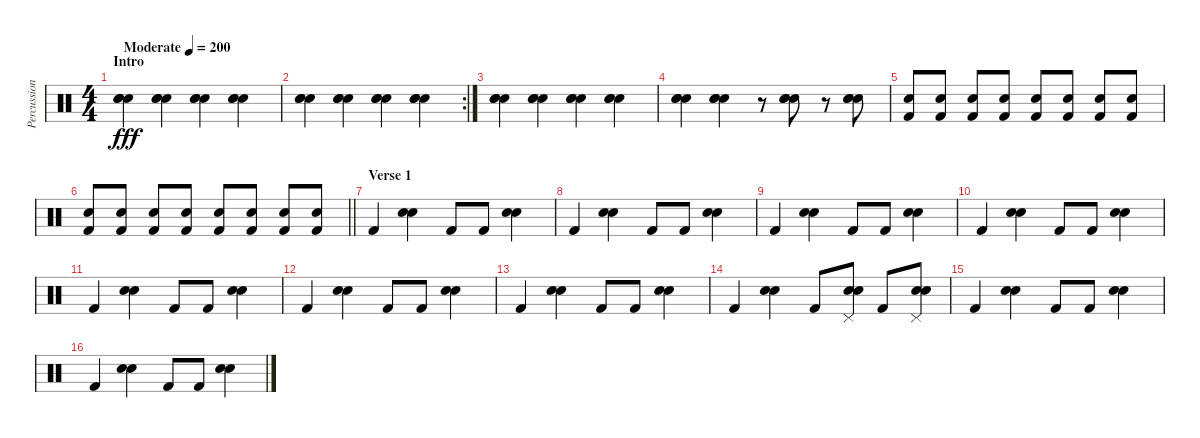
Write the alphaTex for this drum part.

\track ("Percussions" "Percussion") {instrument percussion}
\staff {score}
\articulation defaults
\ts (4 4)
\section ("" "Intro")
\tempo (200 "Moderate")
\clef neutral
\ks c
("Electric Snare (hit)" "Electric Snare (hit)" "Electric Snare (hit)").4{dy fff} ("Electric Snare (hit)" "Electric Snare (hit)" "Electric Snare (hit)").4 ("Electric Snare (hit)" "Electric Snare (hit)" "Electric Snare (hit)").4 ("Electric Snare (hit)" "Electric Snare (hit)" "Electric Snare (hit)").4 |
\rc 2
("Electric Snare (hit)" "Electric Snare (hit)" "Electric Snare (hit)").4 ("Electric Snare (hit)" "Electric Snare (hit)" "Electric Snare (hit)").4 ("Electric Snare (hit)" "Electric Snare (hit)" "Electric Snare (hit)").4 ("Electric Snare (hit)" "Electric Snare (hit)" "Electric Snare (hit)").4 |
("Electric Snare (hit)" "Electric Snare (hit)" "Electric Snare (hit)").4 ("Electric Snare (hit)" "Electric Snare (hit)" "Electric Snare (hit)").4 ("Electric Snare (hit)" "Electric Snare (hit)" "Electric Snare (hit)").4 ("Electric Snare (hit)" "Electric Snare (hit)" "Electric Snare (hit)").4 |
("Electric Snare (hit)" "Electric Snare (hit)" "Electric Snare (hit)").4 ("Electric Snare (hit)" "Electric Snare (hit)" "Electric Snare (hit)").4 r.8 ("Electric Snare (hit)" "Electric Snare (hit)" "Electric Snare (hit)").8 r.8 ("Electric Snare (hit)" "Electric Snare (hit)" "Electric Snare (hit)").8 |
("Electric Snare (hit)" "Kick (hit) 2").8 ("Electric Snare (hit)" "Kick (hit) 2").8 ("Electric Snare (hit)" "Kick (hit) 2").8 ("Electric Snare (hit)" "Kick (hit) 2").8 ("Electric Snare (hit)" "Kick (hit) 2").8 ("Electric Snare (hit)" "Kick (hit) 2").8 ("Electric Snare (hit)" "Kick (hit) 2").8 ("Electric Snare (hit)" "Kick (hit) 2").8 |
\barLineRight lightlight
("Electric Snare (hit)" "Kick (hit) 2").8 ("Electric Snare (hit)" "Kick (hit) 2").8 ("Electric Snare (hit)" "Kick (hit) 2").8 ("Electric Snare (hit)" "Kick (hit) 2").8 ("Electric Snare (hit)" "Kick (hit) 2").8 ("Electric Snare (hit)" "Kick (hit) 2").8 ("Electric Snare (hit)" "Kick (hit) 2").8 ("Electric Snare (hit)" "Kick (hit) 2").8 |
\section ("" "Verse 1")
"Kick (hit) 2".4 ("Electric Snare (hit)" "Electric Snare (hit)").4 "Kick (hit) 2".8 "Kick (hit) 2".8 ("Electric Snare (hit)" "Electric Snare (hit)").4 |
"Kick (hit) 2".4 ("Electric Snare (hit)" "Electric Snare (hit)").4 "Kick (hit) 2".8 "Kick (hit) 2".8 ("Electric Snare (hit)" "Electric Snare (hit)").4 |
"Kick (hit) 2".4 ("Electric Snare (hit)" "Electric Snare (hit)").4 "Kick (hit) 2".8 "Kick (hit) 2".8 ("Electric Snare (hit)" "Electric Snare (hit)").4 |
"Kick (hit) 2".4 ("Electric Snare (hit)" "Electric Snare (hit)").4 "Kick (hit) 2".8 "Kick (hit) 2".8 ("Electric Snare (hit)" "Electric Snare (hit)").4 |
"Kick (hit) 2".4 ("Electric Snare (hit)" "Electric Snare (hit)").4 "Kick (hit) 2".8 "Kick (hit) 2".8 ("Electric Snare (hit)" "Electric Snare (hit)").4 |
"Kick (hit) 2".4 ("Electric Snare (hit)" "Electric Snare (hit)").4 "Kick (hit) 2".8 "Kick (hit) 2".8 ("Electric Snare (hit)" "Electric Snare (hit)").4 |
"Kick (hit) 2".4 ("Electric Snare (hit)" "Electric Snare (hit)").4 "Kick (hit) 2".8 "Kick (hit) 2".8 ("Electric Snare (hit)" "Electric Snare (hit)").4 |
"Kick (hit) 2".4 ("Electric Snare (hit)" "Electric Snare (hit)").4 "Kick (hit) 2".8 ("Pedal Hi-Hat (hit)" "Electric Snare (hit)" "Electric Snare (hit)").8 "Kick (hit) 2".8 ("Pedal Hi-Hat (hit)" "Electric Snare (hit)" "Electric Snare (hit)").8 |
"Kick (hit) 2".4 ("Electric Snare (hit)" "Electric Snare (hit)").4 "Kick (hit) 2".8 "Kick (hit) 2".8 ("Electric Snare (hit)" "Electric Snare (hit)").4 |
"Kick (hit) 2".4 ("Electric Snare (hit)" "Electric Snare (hit)").4 "Kick (hit) 2".8 "Kick (hit) 2".8 ("Electric Snare (hit)" "Electric Snare (hit)").4
